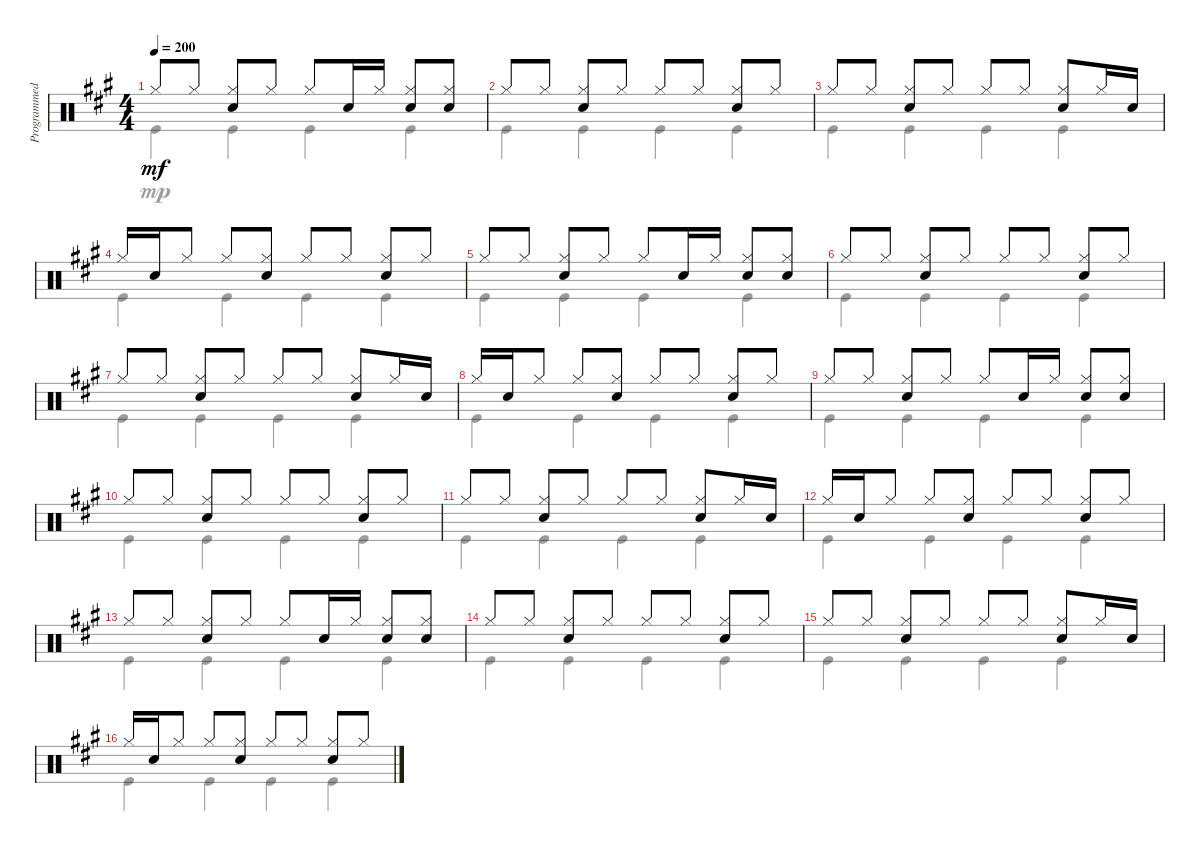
\track ("Programmed Drums" "Programmed") {instrument percussion}
\staff {score}
\articulation defaults
\voice
\ts (4 4)
\tempo 200
\clef neutral
\ks a "Hi-Hat (closed)".8{dy mf} "Hi-Hat (closed)".8
("Hi-Hat (closed)" "Snare (hit) 2").8 "Hi-Hat (closed)".8 "Hi-Hat (closed)".8 "Snare (hit) 2".16 "Hi-Hat (closed)".16 ("Hi-Hat (closed)" "Snare (hit) 2").8 ("Hi-Hat (closed)" "Snare (hit) 2").8 |
"Hi-Hat (closed)".8 "Hi-Hat (closed)".8 ("Hi-Hat (closed)" "Snare (hit) 2").8 "Hi-Hat (closed)".8 "Hi-Hat (closed)".8 "Hi-Hat (closed)".8 ("Hi-Hat (closed)" "Snare (hit) 2").8 "Hi-Hat (closed)".8 |
"Hi-Hat (closed)".8 "Hi-Hat (closed)".8 ("Hi-Hat (closed)" "Snare (hit) 2").8 "Hi-Hat (closed)".8 "Hi-Hat (closed)".8 "Hi-Hat (closed)".8 ("Hi-Hat (closed)" "Snare (hit) 2").8 "Hi-Hat (closed)".16 "Snare (hit) 2".16 |
"Hi-Hat (closed)".16 "Snare (hit) 2".16 "Hi-Hat (closed)".8 "Hi-Hat (closed)".8 ("Hi-Hat (closed)" "Snare (hit) 2").8 "Hi-Hat (closed)".8 "Hi-Hat (closed)".8 ("Hi-Hat (closed)" "Snare (hit) 2").8 "Hi-Hat (closed)".8 |
"Hi-Hat (closed)".8 "Hi-Hat (closed)".8 ("Hi-Hat (closed)" "Snare (hit) 2").8 "Hi-Hat (closed)".8 "Hi-Hat (closed)".8 "Snare (hit) 2".16 "Hi-Hat (closed)".16 ("Hi-Hat (closed)" "Snare (hit) 2").8 ("Hi-Hat (closed)" "Snare (hit) 2").8 |
"Hi-Hat (closed)".8 "Hi-Hat (closed)".8 ("Hi-Hat (closed)" "Snare (hit) 2").8 "Hi-Hat (closed)".8 "Hi-Hat (closed)".8 "Hi-Hat (closed)".8 ("Hi-Hat (closed)" "Snare (hit) 2").8 "Hi-Hat (closed)".8 |
"Hi-Hat (closed)".8 "Hi-Hat (closed)".8 ("Hi-Hat (closed)" "Snare (hit) 2").8 "Hi-Hat (closed)".8 "Hi-Hat (closed)".8 "Hi-Hat (closed)".8 ("Hi-Hat (closed)" "Snare (hit) 2").8 "Hi-Hat (closed)".16 "Snare (hit) 2".16 |
"Hi-Hat (closed)".16 "Snare (hit) 2".16 "Hi-Hat (closed)".8 "Hi-Hat (closed)".8 ("Hi-Hat (closed)" "Snare (hit) 2").8 "Hi-Hat (closed)".8 "Hi-Hat (closed)".8 ("Hi-Hat (closed)" "Snare (hit) 2").8 "Hi-Hat (closed)".8 |
"Hi-Hat (closed)".8 "Hi-Hat (closed)".8 ("Hi-Hat (closed)" "Snare (hit) 2").8 "Hi-Hat (closed)".8 "Hi-Hat (closed)".8 "Snare (hit) 2".16 "Hi-Hat (closed)".16 ("Hi-Hat (closed)" "Snare (hit) 2").8 ("Hi-Hat (closed)" "Snare (hit) 2").8 |
"Hi-Hat (closed)".8 "Hi-Hat (closed)".8 ("Hi-Hat (closed)" "Snare (hit) 2").8 "Hi-Hat (closed)".8 "Hi-Hat (closed)".8 "Hi-Hat (closed)".8 ("Hi-Hat (closed)" "Snare (hit) 2").8 "Hi-Hat (closed)".8 |
"Hi-Hat (closed)".8 "Hi-Hat (closed)".8 ("Hi-Hat (closed)" "Snare (hit) 2").8 "Hi-Hat (closed)".8 "Hi-Hat (closed)".8 "Hi-Hat (closed)".8 ("Hi-Hat (closed)" "Snare (hit) 2").8 "Hi-Hat (closed)".16 "Snare (hit) 2".16 |
"Hi-Hat (closed)".16 "Snare (hit) 2".16 "Hi-Hat (closed)".8 "Hi-Hat (closed)".8 ("Hi-Hat (closed)" "Snare (hit) 2").8 "Hi-Hat (closed)".8 "Hi-Hat (closed)".8 ("Hi-Hat (closed)" "Snare (hit) 2").8 "Hi-Hat (closed)".8 |
"Hi-Hat (closed)".8 "Hi-Hat (closed)".8 ("Hi-Hat (closed)" "Snare (hit) 2").8 "Hi-Hat (closed)".8 "Hi-Hat (closed)".8 "Snare (hit) 2".16 "Hi-Hat (closed)".16 ("Hi-Hat (closed)" "Snare (hit) 2").8 ("Hi-Hat (closed)" "Snare (hit) 2").8 |
"Hi-Hat (closed)".8 "Hi-Hat (closed)".8 ("Hi-Hat (closed)" "Snare (hit) 2").8 "Hi-Hat (closed)".8 "Hi-Hat (closed)".8 "Hi-Hat (closed)".8 ("Hi-Hat (closed)" "Snare (hit) 2").8 "Hi-Hat (closed)".8 |
"Hi-Hat (closed)".8 "Hi-Hat (closed)".8 ("Hi-Hat (closed)" "Snare (hit) 2").8 "Hi-Hat (closed)".8 "Hi-Hat (closed)".8 "Hi-Hat (closed)".8 ("Hi-Hat (closed)" "Snare (hit) 2").8 "Hi-Hat (closed)".16 "Snare (hit) 2".16 |
"Hi-Hat (closed)".16 "Snare (hit) 2".16 "Hi-Hat (closed)".8 "Hi-Hat (closed)".8 ("Hi-Hat (closed)" "Snare (hit) 2").8 "Hi-Hat (closed)".8 "Hi-Hat (closed)".8 ("Hi-Hat (closed)" "Snare (hit) 2").8 "Hi-Hat (closed)".8
\voice
\clef neutral
\ottava regular
\simile none
\ks a "Kick (hit)".4{dy mp} "Kick (hit)".4 "Kick (hit)".4 "Kick (hit)".4
|
"Kick (hit)".4 "Kick (hit)".4 "Kick (hit)".4 "Kick (hit)".4 |
"Kick (hit)".4 "Kick (hit)".4 "Kick (hit)".4 "Kick (hit)".4 |
"Kick (hit)".4 "Kick (hit)".4 "Kick (hit)".4 "Kick (hit)".4 |
"Kick (hit)".4 "Kick (hit)".4 "Kick (hit)".4 "Kick (hit)".4 |
"Kick (hit)".4 "Kick (hit)".4 "Kick (hit)".4 "Kick (hit)".4 |
"Kick (hit)".4 "Kick (hit)".4 "Kick (hit)".4 "Kick (hit)".4 |
"Kick (hit)".4 "Kick (hit)".4 "Kick (hit)".4 "Kick (hit)".4 |
"Kick (hit)".4 "Kick (hit)".4 "Kick (hit)".4 "Kick (hit)".4 |
"Kick (hit)".4 "Kick (hit)".4 "Kick (hit)".4 "Kick (hit)".4 |
"Kick (hit)".4 "Kick (hit)".4 "Kick (hit)".4 "Kick (hit)".4 |
"Kick (hit)".4 "Kick (hit)".4 "Kick (hit)".4 "Kick (hit)".4 |
"Kick (hit)".4 "Kick (hit)".4 "Kick (hit)".4 "Kick (hit)".4 |
"Kick (hit)".4 "Kick (hit)".4 "Kick (hit)".4 "Kick (hit)".4 |
"Kick (hit)".4 "Kick (hit)".4 "Kick (hit)".4 "Kick (hit)".4 |
"Kick (hit)".4 "Kick (hit)".4 "Kick (hit)".4 "Kick (hit)".4
